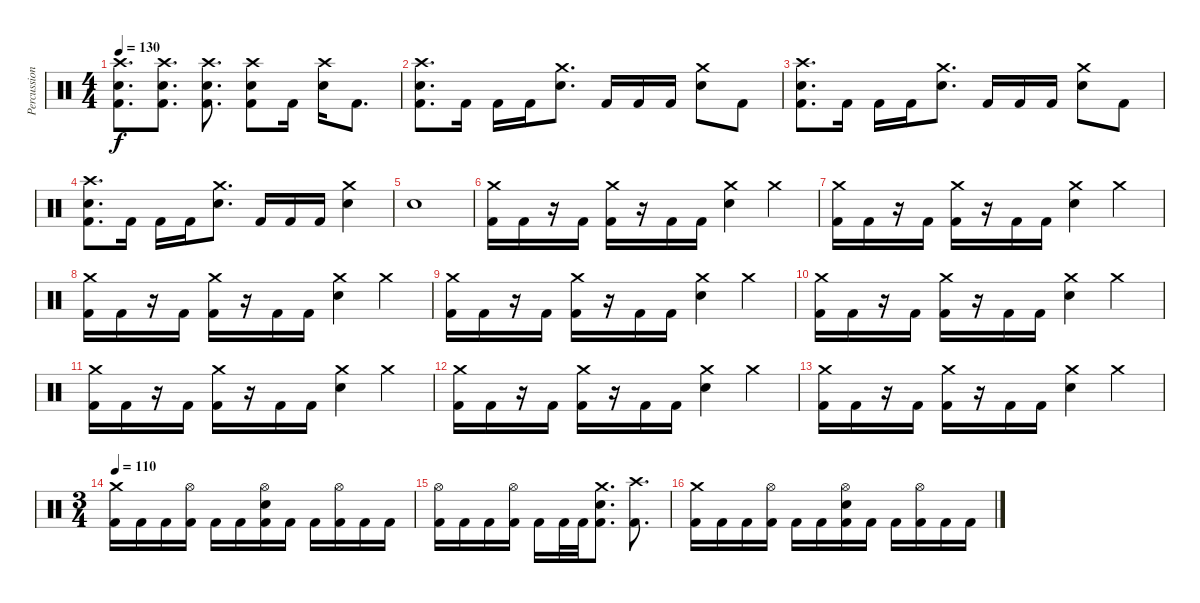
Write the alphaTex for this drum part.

\track ("Percussion" "Percussion") {instrument percussion}
\staff {score}
\articulation defaults
\ts (4 4)
\tempo 130
\clef neutral
\ks c
("Crash high (hit)" "Electric Snare (hit)" "Kick (hit) 2").8{d dy f} ("Crash high (hit)" "Electric Snare (hit)" "Kick (hit) 2").8{d} ("Crash high (hit)" "Electric Snare (hit)" "Kick (hit) 2").8{d} ("Crash high (hit)" "Electric Snare (hit)" "Kick (hit) 2").8 "Kick (hit) 2".16 ("Crash high (hit)" "Electric Snare (hit)").16 "Kick (hit) 2".8{d} |
("Crash high (hit)" "Electric Snare (hit)" "Kick (hit) 2").8{d} "Kick (hit) 2".16 "Kick (hit) 2".16 "Kick (hit) 2".16 ("Crash medium (hit)" "Electric Snare (hit)").8{d} "Kick (hit) 2".16 "Kick (hit) 2".16 "Kick (hit) 2".16 ("Crash medium (hit)" "Electric Snare (hit)").8 "Kick (hit) 2".8 |
("Crash high (hit)" "Electric Snare (hit)" "Kick (hit) 2").8{d} "Kick (hit) 2".16 "Kick (hit) 2".16 "Kick (hit) 2".16 ("Crash medium (hit)" "Electric Snare (hit)").8{d} "Kick (hit) 2".16 "Kick (hit) 2".16 "Kick (hit) 2".16 ("Crash medium (hit)" "Electric Snare (hit)").8 "Kick (hit) 2".8 |
("Crash high (hit)" "Electric Snare (hit)" "Kick (hit) 2").8{d} "Kick (hit) 2".16 "Kick (hit) 2".16 "Kick (hit) 2".16 ("Crash medium (hit)" "Electric Snare (hit)").8{d} "Kick (hit) 2".16 "Kick (hit) 2".16 "Kick (hit) 2".16 ("Crash medium (hit)" "Electric Snare (hit)").4 |
"Electric Snare (hit)".1 |
("Crash medium (hit)" "Kick (hit) 2").16 "Kick (hit) 2".16 r.16 "Kick (hit) 2".16 ("Crash medium (hit)" "Kick (hit) 2").16 r.16 "Kick (hit) 2".16 "Kick (hit) 2".16 ("Crash medium (hit)" "Electric Snare (hit)").4 "Crash medium (hit)".4 |
("Crash medium (hit)" "Kick (hit) 2").16 "Kick (hit) 2".16 r.16 "Kick (hit) 2".16 ("Crash medium (hit)" "Kick (hit) 2").16 r.16 "Kick (hit) 2".16 "Kick (hit) 2".16 ("Crash medium (hit)" "Electric Snare (hit)").4 "Crash medium (hit)".4 |
("Crash medium (hit)" "Kick (hit) 2").16 "Kick (hit) 2".16 r.16 "Kick (hit) 2".16 ("Crash medium (hit)" "Kick (hit) 2").16 r.16 "Kick (hit) 2".16 "Kick (hit) 2".16 ("Crash medium (hit)" "Electric Snare (hit)").4 "Crash medium (hit)".4 |
("Crash medium (hit)" "Kick (hit) 2").16 "Kick (hit) 2".16 r.16 "Kick (hit) 2".16 ("Crash medium (hit)" "Kick (hit) 2").16 r.16 "Kick (hit) 2".16 "Kick (hit) 2".16 ("Crash medium (hit)" "Electric Snare (hit)").4 "Crash medium (hit)".4 |
("Crash medium (hit)" "Kick (hit) 2").16 "Kick (hit) 2".16 r.16 "Kick (hit) 2".16 ("Crash medium (hit)" "Kick (hit) 2").16 r.16 "Kick (hit) 2".16 "Kick (hit) 2".16 ("Crash medium (hit)" "Electric Snare (hit)").4 "Crash medium (hit)".4 |
("Crash medium (hit)" "Kick (hit) 2").16 "Kick (hit) 2".16 r.16 "Kick (hit) 2".16 ("Crash medium (hit)" "Kick (hit) 2").16 r.16 "Kick (hit) 2".16 "Kick (hit) 2".16 ("Crash medium (hit)" "Electric Snare (hit)").4 "Crash medium (hit)".4 |
("Crash medium (hit)" "Kick (hit) 2").16 "Kick (hit) 2".16 r.16 "Kick (hit) 2".16 ("Crash medium (hit)" "Kick (hit) 2").16 r.16 "Kick (hit) 2".16 "Kick (hit) 2".16 ("Crash medium (hit)" "Electric Snare (hit)").4 "Crash medium (hit)".4 |
("Crash medium (hit)" "Kick (hit) 2").16 "Kick (hit) 2".16 r.16 "Kick (hit) 2".16 ("Crash medium (hit)" "Kick (hit) 2").16 r.16 "Kick (hit) 2".16 "Kick (hit) 2".16 ("Crash medium (hit)" "Electric Snare (hit)").4 "Crash medium (hit)".4 |
\ts (3 4)
\tempo 110
("Crash medium (hit)" "Kick (hit) 2").16 "Kick (hit) 2".16 "Kick (hit) 2".16 ("Hi-Hat (open)" "Kick (hit) 2").16 "Kick (hit) 2".16 "Kick (hit) 2".16 ("Hi-Hat (open)" "Electric Snare (hit)" "Kick (hit) 2").16 "Kick (hit) 2".16 "Kick (hit) 2".16 ("Hi-Hat (open)" "Kick (hit) 2").16 "Kick (hit) 2".16 "Kick (hit) 2".16 |
("Hi-Hat (open)" "Kick (hit) 2").16 "Kick (hit) 2".16 "Kick (hit) 2".16 ("Hi-Hat (open)" "Kick (hit) 2").16 "Kick (hit) 2".16 "Kick (hit) 2".32 "Kick (hit) 2".32 ("Crash medium (hit)" "Electric Snare (hit)" "Kick (hit) 2").8{d} ("Crash high (hit)" "Kick (hit) 2").8{d} |
("Crash medium (hit)" "Kick (hit) 2").16 "Kick (hit) 2".16 "Kick (hit) 2".16 ("Hi-Hat (open)" "Kick (hit) 2").16 "Kick (hit) 2".16 "Kick (hit) 2".16 ("Hi-Hat (open)" "Electric Snare (hit)" "Kick (hit) 2").16 "Kick (hit) 2".16 "Kick (hit) 2".16 ("Hi-Hat (open)" "Kick (hit) 2").16 "Kick (hit) 2".16 "Kick (hit) 2".16
